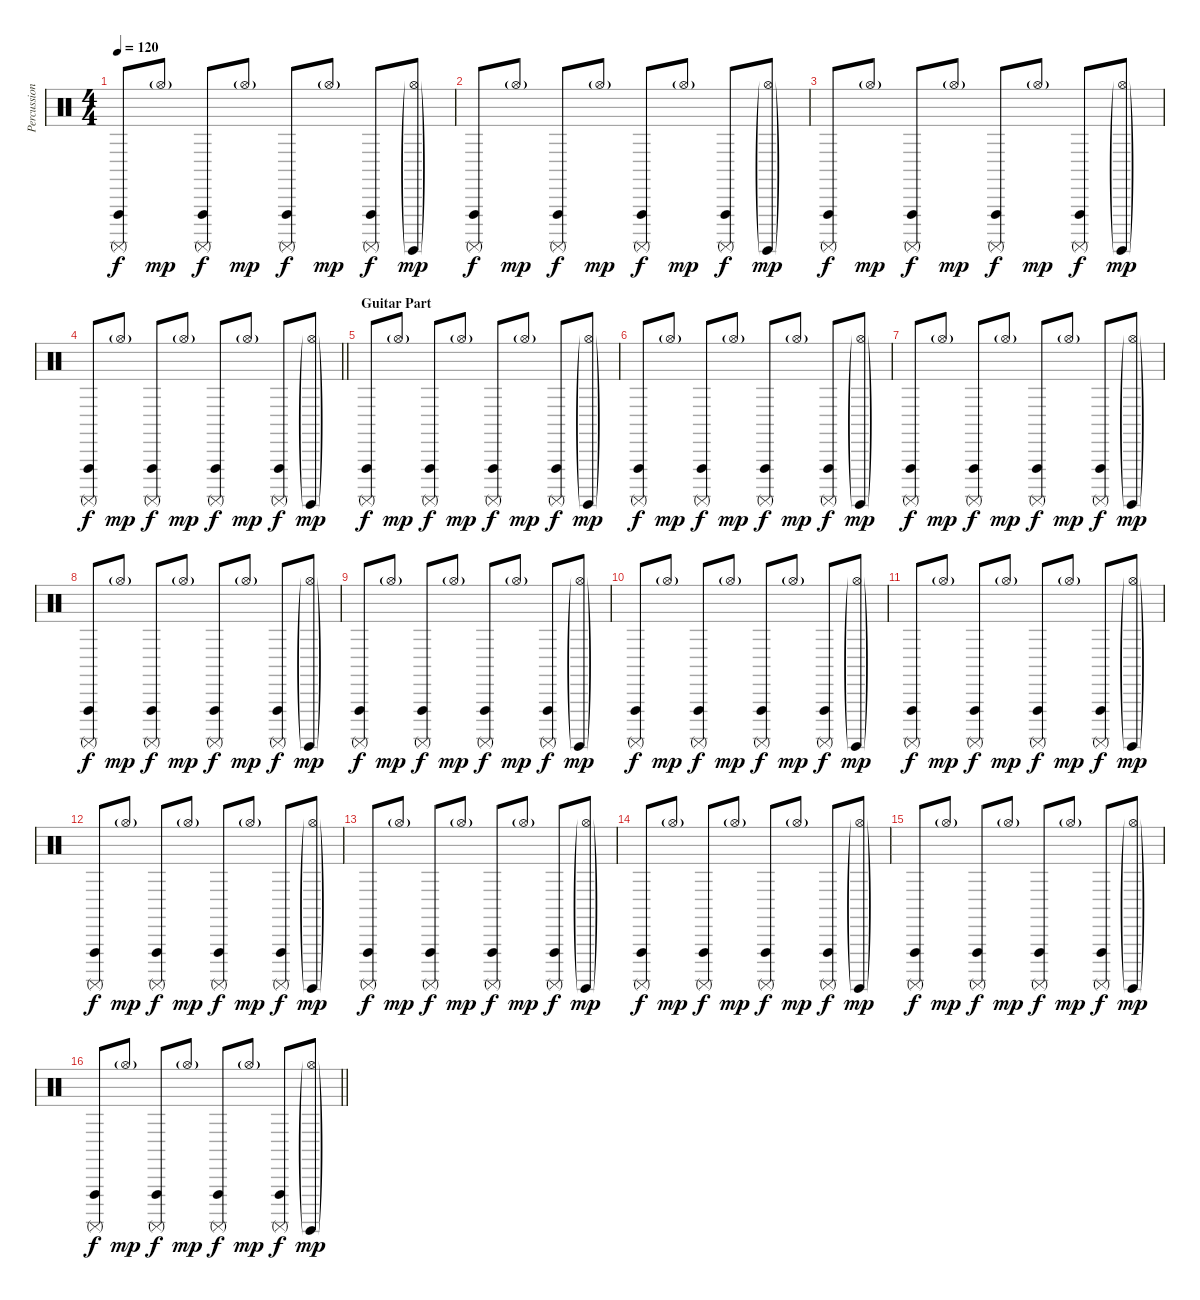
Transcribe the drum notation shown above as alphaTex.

\track ("Percussion 1" "Percussion") {instrument percussion}
\staff {score}
\articulation defaults
\ts (4 4)
\tempo 120
\clef neutral
\ks c
("Surdo (mute)" "Vibraslap (hit)").8{dy f} "Hi-Hat (open)"{g}.8{dy mp} ("Surdo (mute)" "Vibraslap (hit)").8{dy f} "Hi-Hat (open)"{g}.8{dy mp} ("Surdo (mute)" "Vibraslap (hit)").8{dy f} "Hi-Hat (open)"{g}.8{dy mp} ("Surdo (mute)" "Vibraslap (hit)").8{dy f} ("Surdo (hit)"{g} "Hi-Hat (open)"{g}).8{dy mp} |
("Surdo (mute)" "Vibraslap (hit)").8{dy f} "Hi-Hat (open)"{g}.8{dy mp} ("Surdo (mute)" "Vibraslap (hit)").8{dy f} "Hi-Hat (open)"{g}.8{dy mp} ("Surdo (mute)" "Vibraslap (hit)").8{dy f} "Hi-Hat (open)"{g}.8{dy mp} ("Surdo (mute)" "Vibraslap (hit)").8{dy f} ("Surdo (hit)"{g} "Hi-Hat (open)"{g}).8{dy mp} |
("Surdo (mute)" "Vibraslap (hit)").8{dy f} "Hi-Hat (open)"{g}.8{dy mp} ("Surdo (mute)" "Vibraslap (hit)").8{dy f} "Hi-Hat (open)"{g}.8{dy mp} ("Surdo (mute)" "Vibraslap (hit)").8{dy f} "Hi-Hat (open)"{g}.8{dy mp} ("Surdo (mute)" "Vibraslap (hit)").8{dy f} ("Surdo (hit)"{g} "Hi-Hat (open)"{g}).8{dy mp} |
\barLineRight lightlight
("Surdo (mute)" "Vibraslap (hit)").8{dy f} "Hi-Hat (open)"{g}.8{dy mp} ("Surdo (mute)" "Vibraslap (hit)").8{dy f} "Hi-Hat (open)"{g}.8{dy mp} ("Surdo (mute)" "Vibraslap (hit)").8{dy f} "Hi-Hat (open)"{g}.8{dy mp} ("Surdo (mute)" "Vibraslap (hit)").8{dy f} ("Surdo (hit)"{g} "Hi-Hat (open)"{g}).8{dy mp} |
\section ("" "Guitar Part")
("Surdo (mute)" "Vibraslap (hit)").8{dy f} "Hi-Hat (open)"{g}.8{dy mp} ("Surdo (mute)" "Vibraslap (hit)").8{dy f} "Hi-Hat (open)"{g}.8{dy mp} ("Surdo (mute)" "Vibraslap (hit)").8{dy f} "Hi-Hat (open)"{g}.8{dy mp} ("Surdo (mute)" "Vibraslap (hit)").8{dy f} ("Surdo (hit)"{g} "Hi-Hat (open)"{g}).8{dy mp} |
("Surdo (mute)" "Vibraslap (hit)").8{dy f} "Hi-Hat (open)"{g}.8{dy mp} ("Surdo (mute)" "Vibraslap (hit)").8{dy f} "Hi-Hat (open)"{g}.8{dy mp} ("Surdo (mute)" "Vibraslap (hit)").8{dy f} "Hi-Hat (open)"{g}.8{dy mp} ("Surdo (mute)" "Vibraslap (hit)").8{dy f} ("Surdo (hit)"{g} "Hi-Hat (open)"{g}).8{dy mp} |
("Surdo (mute)" "Vibraslap (hit)").8{dy f} "Hi-Hat (open)"{g}.8{dy mp} ("Surdo (mute)" "Vibraslap (hit)").8{dy f} "Hi-Hat (open)"{g}.8{dy mp} ("Surdo (mute)" "Vibraslap (hit)").8{dy f} "Hi-Hat (open)"{g}.8{dy mp} ("Surdo (mute)" "Vibraslap (hit)").8{dy f} ("Surdo (hit)"{g} "Hi-Hat (open)"{g}).8{dy mp} |
("Surdo (mute)" "Vibraslap (hit)").8{dy f} "Hi-Hat (open)"{g}.8{dy mp} ("Surdo (mute)" "Vibraslap (hit)").8{dy f} "Hi-Hat (open)"{g}.8{dy mp} ("Surdo (mute)" "Vibraslap (hit)").8{dy f} "Hi-Hat (open)"{g}.8{dy mp} ("Surdo (mute)" "Vibraslap (hit)").8{dy f} ("Surdo (hit)"{g} "Hi-Hat (open)"{g}).8{dy mp} |
("Surdo (mute)" "Vibraslap (hit)").8{dy f} "Hi-Hat (open)"{g}.8{dy mp} ("Surdo (mute)" "Vibraslap (hit)").8{dy f} "Hi-Hat (open)"{g}.8{dy mp} ("Surdo (mute)" "Vibraslap (hit)").8{dy f} "Hi-Hat (open)"{g}.8{dy mp} ("Surdo (mute)" "Vibraslap (hit)").8{dy f} ("Surdo (hit)"{g} "Hi-Hat (open)"{g}).8{dy mp} |
("Surdo (mute)" "Vibraslap (hit)").8{dy f} "Hi-Hat (open)"{g}.8{dy mp} ("Surdo (mute)" "Vibraslap (hit)").8{dy f} "Hi-Hat (open)"{g}.8{dy mp} ("Surdo (mute)" "Vibraslap (hit)").8{dy f} "Hi-Hat (open)"{g}.8{dy mp} ("Surdo (mute)" "Vibraslap (hit)").8{dy f} ("Surdo (hit)"{g} "Hi-Hat (open)"{g}).8{dy mp} |
("Surdo (mute)" "Vibraslap (hit)").8{dy f} "Hi-Hat (open)"{g}.8{dy mp} ("Surdo (mute)" "Vibraslap (hit)").8{dy f} "Hi-Hat (open)"{g}.8{dy mp} ("Surdo (mute)" "Vibraslap (hit)").8{dy f} "Hi-Hat (open)"{g}.8{dy mp} ("Surdo (mute)" "Vibraslap (hit)").8{dy f} ("Surdo (hit)"{g} "Hi-Hat (open)"{g}).8{dy mp} |
("Surdo (mute)" "Vibraslap (hit)").8{dy f} "Hi-Hat (open)"{g}.8{dy mp} ("Surdo (mute)" "Vibraslap (hit)").8{dy f} "Hi-Hat (open)"{g}.8{dy mp} ("Surdo (mute)" "Vibraslap (hit)").8{dy f} "Hi-Hat (open)"{g}.8{dy mp} ("Surdo (mute)" "Vibraslap (hit)").8{dy f} ("Surdo (hit)"{g} "Hi-Hat (open)"{g}).8{dy mp} |
("Surdo (mute)" "Vibraslap (hit)").8{dy f} "Hi-Hat (open)"{g}.8{dy mp} ("Surdo (mute)" "Vibraslap (hit)").8{dy f} "Hi-Hat (open)"{g}.8{dy mp} ("Surdo (mute)" "Vibraslap (hit)").8{dy f} "Hi-Hat (open)"{g}.8{dy mp} ("Surdo (mute)" "Vibraslap (hit)").8{dy f} ("Surdo (hit)"{g} "Hi-Hat (open)"{g}).8{dy mp} |
("Surdo (mute)" "Vibraslap (hit)").8{dy f} "Hi-Hat (open)"{g}.8{dy mp} ("Surdo (mute)" "Vibraslap (hit)").8{dy f} "Hi-Hat (open)"{g}.8{dy mp} ("Surdo (mute)" "Vibraslap (hit)").8{dy f} "Hi-Hat (open)"{g}.8{dy mp} ("Surdo (mute)" "Vibraslap (hit)").8{dy f} ("Surdo (hit)"{g} "Hi-Hat (open)"{g}).8{dy mp} |
("Surdo (mute)" "Vibraslap (hit)").8{dy f} "Hi-Hat (open)"{g}.8{dy mp} ("Surdo (mute)" "Vibraslap (hit)").8{dy f} "Hi-Hat (open)"{g}.8{dy mp} ("Surdo (mute)" "Vibraslap (hit)").8{dy f} "Hi-Hat (open)"{g}.8{dy mp} ("Surdo (mute)" "Vibraslap (hit)").8{dy f} ("Surdo (hit)"{g} "Hi-Hat (open)"{g}).8{dy mp} |
\barLineRight lightlight
("Surdo (mute)" "Vibraslap (hit)").8{dy f} "Hi-Hat (open)"{g}.8{dy mp} ("Surdo (mute)" "Vibraslap (hit)").8{dy f} "Hi-Hat (open)"{g}.8{dy mp} ("Surdo (mute)" "Vibraslap (hit)").8{dy f} "Hi-Hat (open)"{g}.8{dy mp} ("Surdo (mute)" "Vibraslap (hit)").8{dy f} ("Surdo (hit)"{g} "Hi-Hat (open)"{g}).8{dy mp}
